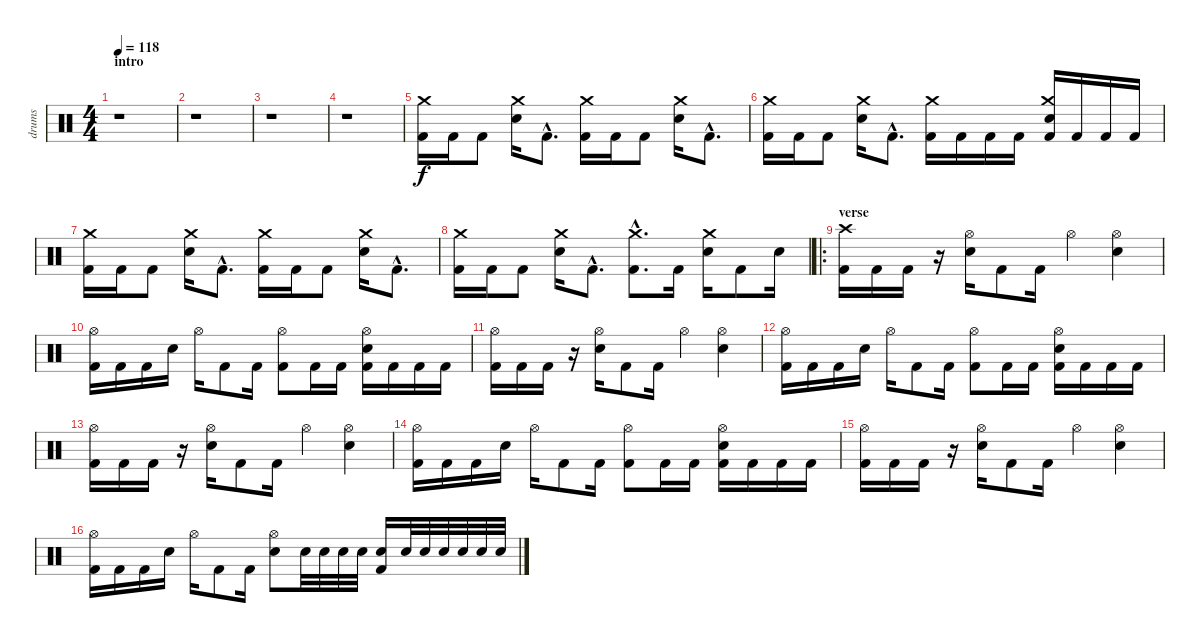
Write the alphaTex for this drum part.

\track ("drums" "drums") {instrument percussion}
\staff {score}
\articulation defaults
\ts (4 4)
\section ("" "intro")
\tempo 118
\clef neutral
\ks c
r.1{dy f} |
r.1 |
r.1 |
r.1 |
("Kick (hit) 2" "Crash medium (hit)").16 "Kick (hit) 2".16 "Kick (hit) 2".8 ("Crash medium (hit)" "Snare (hit) 2").16 "Kick (hit) 2"{hac}.8{d} ("Kick (hit) 2" "Crash medium (hit)").16 "Kick (hit) 2".16 "Kick (hit) 2".8 ("Crash medium (hit)" "Snare (hit) 2").16 "Kick (hit) 2"{hac}.8{d} |
("Kick (hit) 2" "Crash medium (hit)").16 "Kick (hit) 2".16 "Kick (hit) 2".8 ("Crash medium (hit)" "Snare (hit) 2").16 "Kick (hit) 2"{hac}.8{d} ("Kick (hit) 2" "Crash medium (hit)").16 "Kick (hit) 2".16 "Kick (hit) 2".16 "Kick (hit) 2".16 ("Kick (hit) 2" "Crash medium (hit)" "Snare (hit) 2").16 "Kick (hit) 2".16 "Kick (hit) 2".16 "Kick (hit) 2".16 |
("Kick (hit) 2" "Crash medium (hit)").16 "Kick (hit) 2".16 "Kick (hit) 2".8 ("Crash medium (hit)" "Snare (hit) 2").16 "Kick (hit) 2"{hac}.8{d} ("Kick (hit) 2" "Crash medium (hit)").16 "Kick (hit) 2".16 "Kick (hit) 2".8 ("Crash medium (hit)" "Snare (hit) 2").16 "Kick (hit) 2"{hac}.8{d} |
("Kick (hit) 2" "Crash medium (hit)").16 "Kick (hit) 2".16 "Kick (hit) 2".8 ("Crash medium (hit)" "Snare (hit) 2").16 "Kick (hit) 2"{hac}.8{d} ("Kick (hit) 2"{hac} "Crash medium (hit)"{hac}).8{d} "Kick (hit) 2".16 ("Crash medium (hit)" "Snare (hit) 2").16 "Kick (hit) 2".8 "Snare (hit) 2".16 |
\ro
\section ("" "verse")
("Kick (hit) 2" "Crash high (hit)").16 "Kick (hit) 2".16 "Kick (hit) 2".16 r.16 ("Hi-Hat (open)" "Snare (hit) 2").16 "Kick (hit) 2".8 "Kick (hit) 2".16 "Hi-Hat (open)".4 ("Hi-Hat (open)" "Snare (hit) 2").4 |
("Kick (hit) 2" "Hi-Hat (open)").16 "Kick (hit) 2".16 "Kick (hit) 2".16 "Snare (hit) 2".16 "Hi-Hat (open)".16 "Kick (hit) 2".8 "Kick (hit) 2".16 ("Kick (hit) 2" "Hi-Hat (open)").8 "Kick (hit) 2".16 "Kick (hit) 2".16 ("Kick (hit) 2" "Hi-Hat (open)" "Snare (hit) 2").16 "Kick (hit) 2".16 "Kick (hit) 2".16 "Kick (hit) 2".16 |
("Kick (hit) 2" "Hi-Hat (open)").16 "Kick (hit) 2".16 "Kick (hit) 2".16 r.16 ("Hi-Hat (open)" "Snare (hit) 2").16 "Kick (hit) 2".8 "Kick (hit) 2".16 "Hi-Hat (open)".4 ("Hi-Hat (open)" "Snare (hit) 2").4 |
("Kick (hit) 2" "Hi-Hat (open)").16 "Kick (hit) 2".16 "Kick (hit) 2".16 "Snare (hit) 2".16 "Hi-Hat (open)".16 "Kick (hit) 2".8 "Kick (hit) 2".16 ("Kick (hit) 2" "Hi-Hat (open)").8 "Kick (hit) 2".16 "Kick (hit) 2".16 ("Kick (hit) 2" "Hi-Hat (open)" "Snare (hit) 2").16 "Kick (hit) 2".16 "Kick (hit) 2".16 "Kick (hit) 2".16 |
("Kick (hit) 2" "Hi-Hat (open)").16 "Kick (hit) 2".16 "Kick (hit) 2".16 r.16 ("Hi-Hat (open)" "Snare (hit) 2").16 "Kick (hit) 2".8 "Kick (hit) 2".16 "Hi-Hat (open)".4 ("Hi-Hat (open)" "Snare (hit) 2").4 |
("Kick (hit) 2" "Hi-Hat (open)").16 "Kick (hit) 2".16 "Kick (hit) 2".16 "Snare (hit) 2".16 "Hi-Hat (open)".16 "Kick (hit) 2".8 "Kick (hit) 2".16 ("Kick (hit) 2" "Hi-Hat (open)").8 "Kick (hit) 2".16 "Kick (hit) 2".16 ("Kick (hit) 2" "Hi-Hat (open)" "Snare (hit) 2").16 "Kick (hit) 2".16 "Kick (hit) 2".16 "Kick (hit) 2".16 |
("Kick (hit) 2" "Hi-Hat (open)").16 "Kick (hit) 2".16 "Kick (hit) 2".16 r.16 ("Hi-Hat (open)" "Snare (hit) 2").16 "Kick (hit) 2".8 "Kick (hit) 2".16 "Hi-Hat (open)".4 ("Hi-Hat (open)" "Snare (hit) 2").4 |
("Kick (hit) 2" "Hi-Hat (open)").16 "Kick (hit) 2".16 "Kick (hit) 2".16 "Snare (hit) 2".16 "Hi-Hat (open)".16 "Kick (hit) 2".8 "Kick (hit) 2".16 ("Hi-Hat (open)" "Snare (hit) 2").8 "Snare (hit) 2".32 "Snare (hit) 2".32 "Snare (hit) 2".32 "Snare (hit) 2".32 ("Kick (hit) 2" "Snare (hit) 2").16 "Snare (hit) 2".32 "Snare (hit) 2".32 "Snare (hit) 2".32 "Snare (hit) 2".32 "Snare (hit) 2".32 "Snare (hit) 2".32
